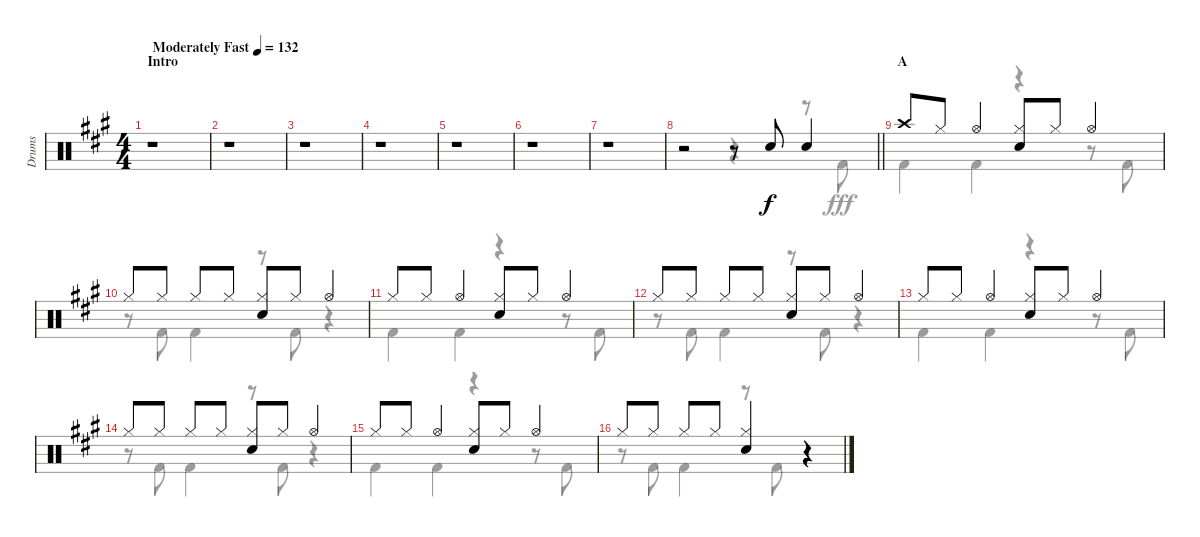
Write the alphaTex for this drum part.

\track ("Drums" "Drums") {instrument percussion}
\staff {score}
\articulation defaults
\voice
\ts (4 4)
\section ("" "Intro")
\tempo (132 "Moderately Fast")
\clef neutral
\ks a
r.1{dy f} |
r.1 |
r.1 |
r.1 |
r.1 |
r.1 |
r.1 |
\barLineRight lightlight
r.2 r.8 "Snare (hit) 2".8 "Snare (hit) 2".4 |
\section ("" "A")
"Crash high (hit)".8 "Hi-Hat (closed)".8 "Hi-Hat (open)".4 ("Hi-Hat (closed)" "Snare (hit) 2").8 "Hi-Hat (closed)".8 "Hi-Hat (open)".4 |
"Hi-Hat (closed)".8 "Hi-Hat (closed)".8 "Hi-Hat (closed)".8 "Hi-Hat (closed)".8 ("Hi-Hat (closed)" "Snare (hit) 2").8 "Hi-Hat (closed)".8 "Hi-Hat (open)".4 |
"Hi-Hat (closed)".8 "Hi-Hat (closed)".8 "Hi-Hat (open)".4 ("Hi-Hat (closed)" "Snare (hit) 2").8 "Hi-Hat (closed)".8 "Hi-Hat (open)".4 |
"Hi-Hat (closed)".8 "Hi-Hat (closed)".8 "Hi-Hat (closed)".8 "Hi-Hat (closed)".8 ("Hi-Hat (closed)" "Snare (hit) 2").8 "Hi-Hat (closed)".8 "Hi-Hat (open)".4 |
"Hi-Hat (closed)".8 "Hi-Hat (closed)".8 "Hi-Hat (open)".4 ("Hi-Hat (closed)" "Snare (hit) 2").8 "Hi-Hat (closed)".8 "Hi-Hat (open)".4 |
"Hi-Hat (closed)".8 "Hi-Hat (closed)".8 "Hi-Hat (closed)".8 "Hi-Hat (closed)".8 ("Hi-Hat (closed)" "Snare (hit) 2").8 "Hi-Hat (closed)".8 "Hi-Hat (open)".4 |
"Hi-Hat (closed)".8 "Hi-Hat (closed)".8 "Hi-Hat (open)".4 ("Hi-Hat (closed)" "Snare (hit) 2").8 "Hi-Hat (closed)".8 "Hi-Hat (open)".4 |
"Hi-Hat (closed)".8 "Hi-Hat (closed)".8 "Hi-Hat (closed)".8 "Hi-Hat (closed)".8 ("Hi-Hat (closed)" "Snare (hit) 2").4 r.4
\voice
\clef neutral
\ottava regular
\simile none
\ks a
r.1{dy fff} |
r.1 |
r.1 |
r.1 |
r.1 |
r.1 |
r.1 |
\barLineRight lightlight
r.2 r.4 r.8 "Kick (hit) 2".8 |
"Kick (hit) 2".4 "Kick (hit) 2".4 r.4 r.8 "Kick (hit) 2".8 |
r.8 "Kick (hit) 2".8 "Kick (hit) 2".4 r.8 "Kick (hit) 2".8 r.4 |
"Kick (hit) 2".4 "Kick (hit) 2".4 r.4 r.8 "Kick (hit) 2".8 |
r.8 "Kick (hit) 2".8 "Kick (hit) 2".4 r.8 "Kick (hit) 2".8 r.4 |
"Kick (hit) 2".4 "Kick (hit) 2".4 r.4 r.8 "Kick (hit) 2".8 |
r.8 "Kick (hit) 2".8 "Kick (hit) 2".4 r.8 "Kick (hit) 2".8 r.4 |
"Kick (hit) 2".4 "Kick (hit) 2".4 r.4 r.8 "Kick (hit) 2".8 |
r.8 "Kick (hit) 2".8 "Kick (hit) 2".4 r.8 "Kick (hit) 2".8 r.4
